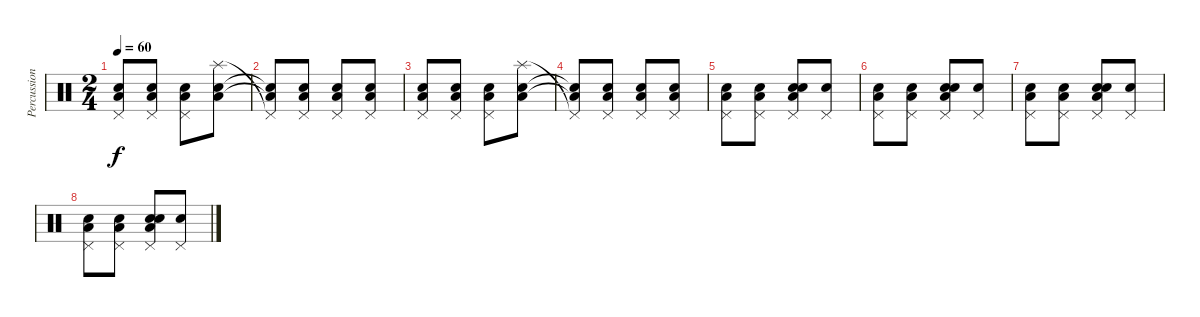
\track ("Percussion" "Percussion") {instrument percussion}
\staff {score}
\articulation defaults
\ts (2 4)
\tempo 60
\clef neutral
\ks c
("Electric Snare (hit)" "Low Floor Tom (hit)" "Pedal Hi-Hat (hit)").8{dy f} ("Electric Snare (hit)" "Low Floor Tom (hit)" "Pedal Hi-Hat (hit)").8 ("Electric Snare (hit)" "Low Floor Tom (hit)" "Pedal Hi-Hat (hit)").8 ("Electric Snare (hit)" "Low Floor Tom (hit)" "Splash (hit)").8 |
("Electric Snare (hit)"{t} "Low Floor Tom (hit)"{t} "Pedal Hi-Hat (hit)"{t}).8 ("Electric Snare (hit)" "Low Floor Tom (hit)" "Pedal Hi-Hat (hit)").8 ("Electric Snare (hit)" "Low Floor Tom (hit)" "Pedal Hi-Hat (hit)").8 ("Electric Snare (hit)" "Low Floor Tom (hit)" "Pedal Hi-Hat (hit)").8 |
("Electric Snare (hit)" "Low Floor Tom (hit)" "Pedal Hi-Hat (hit)").8 ("Electric Snare (hit)" "Low Floor Tom (hit)" "Pedal Hi-Hat (hit)").8 ("Electric Snare (hit)" "Low Floor Tom (hit)" "Pedal Hi-Hat (hit)").8 ("Electric Snare (hit)" "Low Floor Tom (hit)" "Splash (hit)").8 |
("Electric Snare (hit)"{t} "Low Floor Tom (hit)"{t} "Pedal Hi-Hat (hit)"{t}).8 ("Electric Snare (hit)" "Low Floor Tom (hit)" "Pedal Hi-Hat (hit)").8 ("Electric Snare (hit)" "Low Floor Tom (hit)" "Pedal Hi-Hat (hit)").8 ("Electric Snare (hit)" "Low Floor Tom (hit)" "Pedal Hi-Hat (hit)").8 |
("Snare (hit)" "Low Floor Tom (hit)" "Pedal Hi-Hat (hit)").8 ("Snare (hit)" "Low Floor Tom (hit)" "Pedal Hi-Hat (hit)").8 ("Snare (hit)" "Electric Snare (hit)" "Low Floor Tom (hit)" "Pedal Hi-Hat (hit)").8 ("Snare (hit)" "Pedal Hi-Hat (hit)").8 |
("Snare (hit)" "Low Floor Tom (hit)" "Pedal Hi-Hat (hit)").8 ("Snare (hit)" "Low Floor Tom (hit)" "Pedal Hi-Hat (hit)").8 ("Snare (hit)" "Electric Snare (hit)" "Low Floor Tom (hit)" "Pedal Hi-Hat (hit)").8 ("Snare (hit)" "Pedal Hi-Hat (hit)").8 |
("Snare (hit)" "Low Floor Tom (hit)" "Pedal Hi-Hat (hit)").8 ("Snare (hit)" "Low Floor Tom (hit)" "Pedal Hi-Hat (hit)").8 ("Snare (hit)" "Electric Snare (hit)" "Low Floor Tom (hit)" "Pedal Hi-Hat (hit)").8 ("Snare (hit)" "Pedal Hi-Hat (hit)").8 |
("Snare (hit)" "Low Floor Tom (hit)" "Pedal Hi-Hat (hit)").8 ("Snare (hit)" "Low Floor Tom (hit)" "Pedal Hi-Hat (hit)").8 ("Snare (hit)" "Electric Snare (hit)" "Low Floor Tom (hit)" "Pedal Hi-Hat (hit)").8 ("Snare (hit)" "Pedal Hi-Hat (hit)").8
